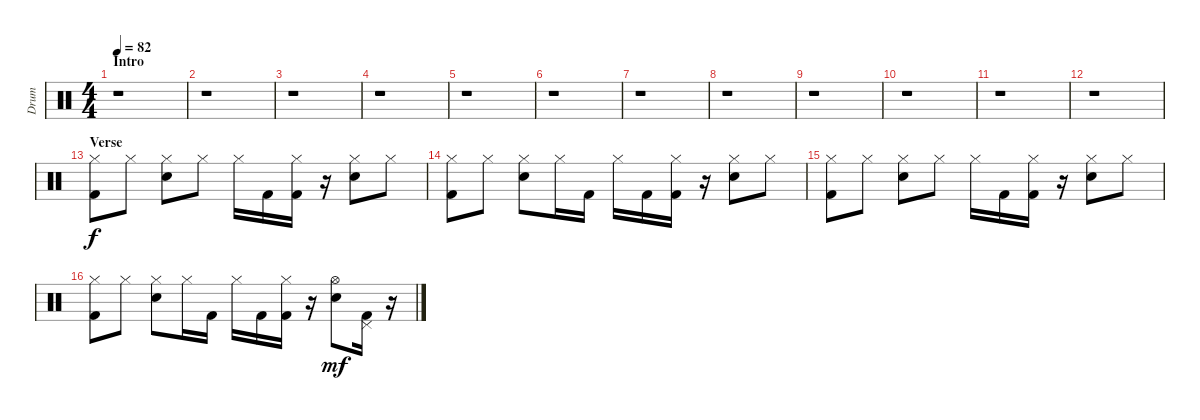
\track ("Drum" "Drum") {instrument percussion}
\staff {score}
\articulation defaults
\ts (4 4)
\section ("" "Intro")
\tempo 82
\clef neutral
\ks c
r.1{dy f} |
r.1 |
r.1 |
r.1 |
r.1 |
r.1 |
r.1 |
r.1 |
r.1 |
r.1 |
r.1 |
r.1 |
\section ("" "Verse")
("Hi-Hat (closed)" "Kick (hit) 2").8 "Hi-Hat (closed)".8 ("Hi-Hat (closed)" "Electric Snare (hit)").8 "Hi-Hat (closed)".8 "Hi-Hat (closed)".16 "Kick (hit) 2".16 ("Hi-Hat (closed)" "Kick (hit) 2").16 r.16 ("Hi-Hat (closed)" "Electric Snare (hit)").8 "Hi-Hat (closed)".8 |
("Hi-Hat (closed)" "Kick (hit) 2").8 "Hi-Hat (closed)".8 ("Hi-Hat (closed)" "Electric Snare (hit)").8 "Hi-Hat (closed)".16 "Kick (hit) 2".16 "Hi-Hat (closed)".16 "Kick (hit) 2".16 ("Hi-Hat (closed)" "Kick (hit) 2").16 r.16 ("Hi-Hat (closed)" "Electric Snare (hit)").8 "Hi-Hat (closed)".8 |
("Hi-Hat (closed)" "Kick (hit) 2").8 "Hi-Hat (closed)".8 ("Hi-Hat (closed)" "Electric Snare (hit)").8 "Hi-Hat (closed)".8 "Hi-Hat (closed)".16 "Kick (hit) 2".16 ("Hi-Hat (closed)" "Kick (hit) 2").16 r.16 ("Hi-Hat (closed)" "Electric Snare (hit)").8 "Hi-Hat (closed)".8 |
("Hi-Hat (closed)" "Kick (hit) 2").8 "Hi-Hat (closed)".8 ("Hi-Hat (closed)" "Electric Snare (hit)").8 "Hi-Hat (closed)".16 "Kick (hit) 2".16 "Hi-Hat (closed)".16 "Kick (hit) 2".16 ("Hi-Hat (closed)" "Kick (hit) 2").16 r.16 ("Hi-Hat (open)" "Electric Snare (hit)").8{dy mf} ("Pedal Hi-Hat (hit)" "Kick (hit) 2").16 r.16
